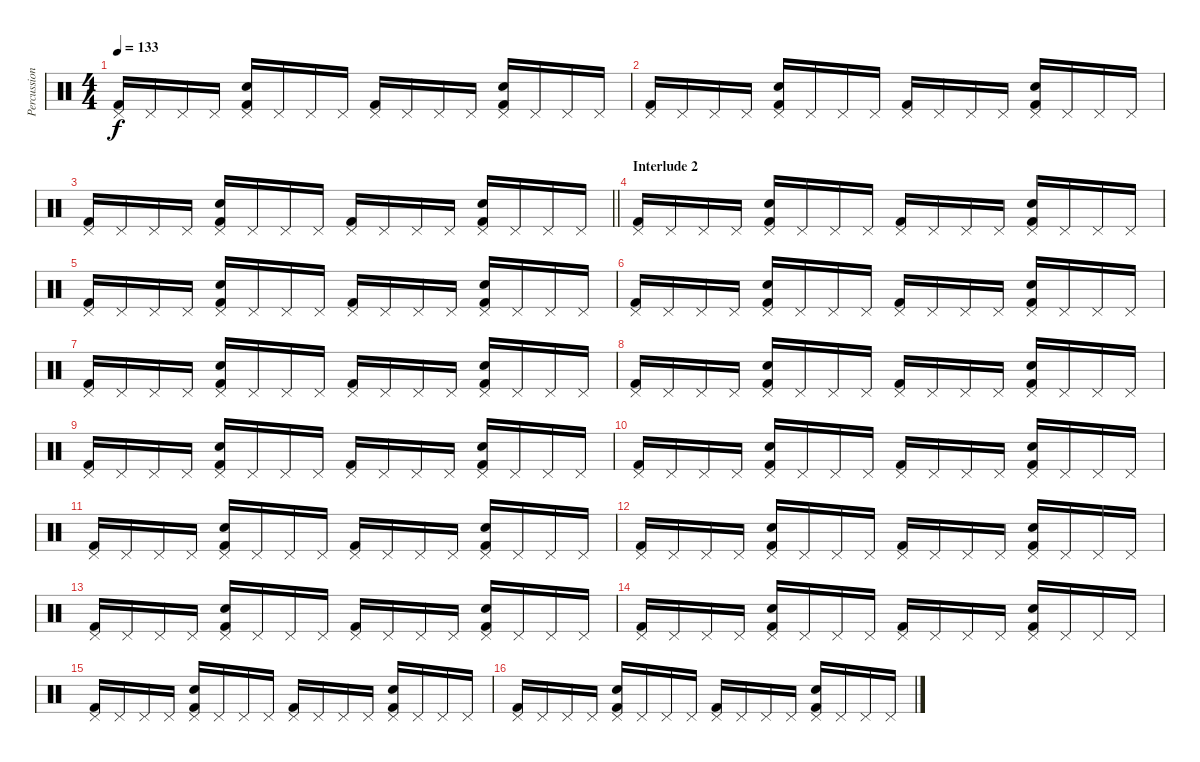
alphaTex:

\track ("Percussions" "Percussion") {instrument percussion}
\staff {score}
\articulation defaults
\ts (4 4)
\tempo 133
\clef neutral
\ks c
("Pedal Hi-Hat (hit)" "Kick (hit) 2").16{dy f} "Pedal Hi-Hat (hit)".16 "Pedal Hi-Hat (hit)".16 "Pedal Hi-Hat (hit)".16 ("Pedal Hi-Hat (hit)" "Electric Snare (hit)" "Kick (hit) 2").16 "Pedal Hi-Hat (hit)".16 "Pedal Hi-Hat (hit)".16 "Pedal Hi-Hat (hit)".16 ("Pedal Hi-Hat (hit)" "Kick (hit) 2").16 "Pedal Hi-Hat (hit)".16 "Pedal Hi-Hat (hit)".16 "Pedal Hi-Hat (hit)".16 ("Pedal Hi-Hat (hit)" "Electric Snare (hit)" "Kick (hit) 2").16 "Pedal Hi-Hat (hit)".16 "Pedal Hi-Hat (hit)".16 "Pedal Hi-Hat (hit)".16 |
("Pedal Hi-Hat (hit)" "Kick (hit) 2").16 "Pedal Hi-Hat (hit)".16 "Pedal Hi-Hat (hit)".16 "Pedal Hi-Hat (hit)".16 ("Pedal Hi-Hat (hit)" "Electric Snare (hit)" "Kick (hit) 2").16 "Pedal Hi-Hat (hit)".16 "Pedal Hi-Hat (hit)".16 "Pedal Hi-Hat (hit)".16 ("Pedal Hi-Hat (hit)" "Kick (hit) 2").16 "Pedal Hi-Hat (hit)".16 "Pedal Hi-Hat (hit)".16 "Pedal Hi-Hat (hit)".16 ("Pedal Hi-Hat (hit)" "Electric Snare (hit)" "Kick (hit) 2").16 "Pedal Hi-Hat (hit)".16 "Pedal Hi-Hat (hit)".16 "Pedal Hi-Hat (hit)".16 |
\barLineRight lightlight
("Pedal Hi-Hat (hit)" "Kick (hit) 2").16 "Pedal Hi-Hat (hit)".16 "Pedal Hi-Hat (hit)".16 "Pedal Hi-Hat (hit)".16 ("Pedal Hi-Hat (hit)" "Electric Snare (hit)" "Kick (hit) 2").16 "Pedal Hi-Hat (hit)".16 "Pedal Hi-Hat (hit)".16 "Pedal Hi-Hat (hit)".16 ("Pedal Hi-Hat (hit)" "Kick (hit) 2").16 "Pedal Hi-Hat (hit)".16 "Pedal Hi-Hat (hit)".16 "Pedal Hi-Hat (hit)".16 ("Pedal Hi-Hat (hit)" "Electric Snare (hit)" "Kick (hit) 2").16 "Pedal Hi-Hat (hit)".16 "Pedal Hi-Hat (hit)".16 "Pedal Hi-Hat (hit)".16 |
\section ("" "Interlude 2")
("Pedal Hi-Hat (hit)" "Kick (hit) 2").16 "Pedal Hi-Hat (hit)".16 "Pedal Hi-Hat (hit)".16 "Pedal Hi-Hat (hit)".16 ("Pedal Hi-Hat (hit)" "Electric Snare (hit)" "Kick (hit) 2").16 "Pedal Hi-Hat (hit)".16 "Pedal Hi-Hat (hit)".16 "Pedal Hi-Hat (hit)".16 ("Pedal Hi-Hat (hit)" "Kick (hit) 2").16 "Pedal Hi-Hat (hit)".16 "Pedal Hi-Hat (hit)".16 "Pedal Hi-Hat (hit)".16 ("Pedal Hi-Hat (hit)" "Electric Snare (hit)" "Kick (hit) 2").16 "Pedal Hi-Hat (hit)".16 "Pedal Hi-Hat (hit)".16 "Pedal Hi-Hat (hit)".16 |
("Pedal Hi-Hat (hit)" "Kick (hit) 2").16 "Pedal Hi-Hat (hit)".16 "Pedal Hi-Hat (hit)".16 "Pedal Hi-Hat (hit)".16 ("Pedal Hi-Hat (hit)" "Electric Snare (hit)" "Kick (hit) 2").16 "Pedal Hi-Hat (hit)".16 "Pedal Hi-Hat (hit)".16 "Pedal Hi-Hat (hit)".16 ("Pedal Hi-Hat (hit)" "Kick (hit) 2").16 "Pedal Hi-Hat (hit)".16 "Pedal Hi-Hat (hit)".16 "Pedal Hi-Hat (hit)".16 ("Pedal Hi-Hat (hit)" "Electric Snare (hit)" "Kick (hit) 2").16 "Pedal Hi-Hat (hit)".16 "Pedal Hi-Hat (hit)".16 "Pedal Hi-Hat (hit)".16 |
("Pedal Hi-Hat (hit)" "Kick (hit) 2").16 "Pedal Hi-Hat (hit)".16 "Pedal Hi-Hat (hit)".16 "Pedal Hi-Hat (hit)".16 ("Pedal Hi-Hat (hit)" "Electric Snare (hit)" "Kick (hit) 2").16 "Pedal Hi-Hat (hit)".16 "Pedal Hi-Hat (hit)".16 "Pedal Hi-Hat (hit)".16 ("Pedal Hi-Hat (hit)" "Kick (hit) 2").16 "Pedal Hi-Hat (hit)".16 "Pedal Hi-Hat (hit)".16 "Pedal Hi-Hat (hit)".16 ("Pedal Hi-Hat (hit)" "Electric Snare (hit)" "Kick (hit) 2").16 "Pedal Hi-Hat (hit)".16 "Pedal Hi-Hat (hit)".16 "Pedal Hi-Hat (hit)".16 |
("Pedal Hi-Hat (hit)" "Kick (hit) 2").16 "Pedal Hi-Hat (hit)".16 "Pedal Hi-Hat (hit)".16 "Pedal Hi-Hat (hit)".16 ("Pedal Hi-Hat (hit)" "Electric Snare (hit)" "Kick (hit) 2").16 "Pedal Hi-Hat (hit)".16 "Pedal Hi-Hat (hit)".16 "Pedal Hi-Hat (hit)".16 ("Pedal Hi-Hat (hit)" "Kick (hit) 2").16 "Pedal Hi-Hat (hit)".16 "Pedal Hi-Hat (hit)".16 "Pedal Hi-Hat (hit)".16 ("Pedal Hi-Hat (hit)" "Electric Snare (hit)" "Kick (hit) 2").16 "Pedal Hi-Hat (hit)".16 "Pedal Hi-Hat (hit)".16 "Pedal Hi-Hat (hit)".16 |
("Pedal Hi-Hat (hit)" "Kick (hit) 2").16 "Pedal Hi-Hat (hit)".16 "Pedal Hi-Hat (hit)".16 "Pedal Hi-Hat (hit)".16 ("Pedal Hi-Hat (hit)" "Electric Snare (hit)" "Kick (hit) 2").16 "Pedal Hi-Hat (hit)".16 "Pedal Hi-Hat (hit)".16 "Pedal Hi-Hat (hit)".16 ("Pedal Hi-Hat (hit)" "Kick (hit) 2").16 "Pedal Hi-Hat (hit)".16 "Pedal Hi-Hat (hit)".16 "Pedal Hi-Hat (hit)".16 ("Pedal Hi-Hat (hit)" "Electric Snare (hit)" "Kick (hit) 2").16 "Pedal Hi-Hat (hit)".16 "Pedal Hi-Hat (hit)".16 "Pedal Hi-Hat (hit)".16 |
("Pedal Hi-Hat (hit)" "Kick (hit) 2").16 "Pedal Hi-Hat (hit)".16 "Pedal Hi-Hat (hit)".16 "Pedal Hi-Hat (hit)".16 ("Pedal Hi-Hat (hit)" "Electric Snare (hit)" "Kick (hit) 2").16 "Pedal Hi-Hat (hit)".16 "Pedal Hi-Hat (hit)".16 "Pedal Hi-Hat (hit)".16 ("Pedal Hi-Hat (hit)" "Kick (hit) 2").16 "Pedal Hi-Hat (hit)".16 "Pedal Hi-Hat (hit)".16 "Pedal Hi-Hat (hit)".16 ("Pedal Hi-Hat (hit)" "Electric Snare (hit)" "Kick (hit) 2").16 "Pedal Hi-Hat (hit)".16 "Pedal Hi-Hat (hit)".16 "Pedal Hi-Hat (hit)".16 |
("Pedal Hi-Hat (hit)" "Kick (hit) 2").16 "Pedal Hi-Hat (hit)".16 "Pedal Hi-Hat (hit)".16 "Pedal Hi-Hat (hit)".16 ("Pedal Hi-Hat (hit)" "Electric Snare (hit)" "Kick (hit) 2").16 "Pedal Hi-Hat (hit)".16 "Pedal Hi-Hat (hit)".16 "Pedal Hi-Hat (hit)".16 ("Pedal Hi-Hat (hit)" "Kick (hit) 2").16 "Pedal Hi-Hat (hit)".16 "Pedal Hi-Hat (hit)".16 "Pedal Hi-Hat (hit)".16 ("Pedal Hi-Hat (hit)" "Electric Snare (hit)" "Kick (hit) 2").16 "Pedal Hi-Hat (hit)".16 "Pedal Hi-Hat (hit)".16 "Pedal Hi-Hat (hit)".16 |
("Pedal Hi-Hat (hit)" "Kick (hit) 2").16 "Pedal Hi-Hat (hit)".16 "Pedal Hi-Hat (hit)".16 "Pedal Hi-Hat (hit)".16 ("Pedal Hi-Hat (hit)" "Electric Snare (hit)" "Kick (hit) 2").16 "Pedal Hi-Hat (hit)".16 "Pedal Hi-Hat (hit)".16 "Pedal Hi-Hat (hit)".16 ("Pedal Hi-Hat (hit)" "Kick (hit) 2").16 "Pedal Hi-Hat (hit)".16 "Pedal Hi-Hat (hit)".16 "Pedal Hi-Hat (hit)".16 ("Pedal Hi-Hat (hit)" "Electric Snare (hit)" "Kick (hit) 2").16 "Pedal Hi-Hat (hit)".16 "Pedal Hi-Hat (hit)".16 "Pedal Hi-Hat (hit)".16 |
("Pedal Hi-Hat (hit)" "Kick (hit) 2").16 "Pedal Hi-Hat (hit)".16 "Pedal Hi-Hat (hit)".16 "Pedal Hi-Hat (hit)".16 ("Pedal Hi-Hat (hit)" "Electric Snare (hit)" "Kick (hit) 2").16 "Pedal Hi-Hat (hit)".16 "Pedal Hi-Hat (hit)".16 "Pedal Hi-Hat (hit)".16 ("Pedal Hi-Hat (hit)" "Kick (hit) 2").16 "Pedal Hi-Hat (hit)".16 "Pedal Hi-Hat (hit)".16 "Pedal Hi-Hat (hit)".16 ("Pedal Hi-Hat (hit)" "Electric Snare (hit)" "Kick (hit) 2").16 "Pedal Hi-Hat (hit)".16 "Pedal Hi-Hat (hit)".16 "Pedal Hi-Hat (hit)".16 |
("Pedal Hi-Hat (hit)" "Kick (hit) 2").16 "Pedal Hi-Hat (hit)".16 "Pedal Hi-Hat (hit)".16 "Pedal Hi-Hat (hit)".16 ("Pedal Hi-Hat (hit)" "Electric Snare (hit)" "Kick (hit) 2").16 "Pedal Hi-Hat (hit)".16 "Pedal Hi-Hat (hit)".16 "Pedal Hi-Hat (hit)".16 ("Pedal Hi-Hat (hit)" "Kick (hit) 2").16 "Pedal Hi-Hat (hit)".16 "Pedal Hi-Hat (hit)".16 "Pedal Hi-Hat (hit)".16 ("Pedal Hi-Hat (hit)" "Electric Snare (hit)" "Kick (hit) 2").16 "Pedal Hi-Hat (hit)".16 "Pedal Hi-Hat (hit)".16 "Pedal Hi-Hat (hit)".16 |
("Pedal Hi-Hat (hit)" "Kick (hit) 2").16 "Pedal Hi-Hat (hit)".16 "Pedal Hi-Hat (hit)".16 "Pedal Hi-Hat (hit)".16 ("Pedal Hi-Hat (hit)" "Electric Snare (hit)" "Kick (hit) 2").16 "Pedal Hi-Hat (hit)".16 "Pedal Hi-Hat (hit)".16 "Pedal Hi-Hat (hit)".16 ("Pedal Hi-Hat (hit)" "Kick (hit) 2").16 "Pedal Hi-Hat (hit)".16 "Pedal Hi-Hat (hit)".16 "Pedal Hi-Hat (hit)".16 ("Pedal Hi-Hat (hit)" "Electric Snare (hit)" "Kick (hit) 2").16 "Pedal Hi-Hat (hit)".16 "Pedal Hi-Hat (hit)".16 "Pedal Hi-Hat (hit)".16 |
("Pedal Hi-Hat (hit)" "Kick (hit) 2").16 "Pedal Hi-Hat (hit)".16 "Pedal Hi-Hat (hit)".16 "Pedal Hi-Hat (hit)".16 ("Pedal Hi-Hat (hit)" "Electric Snare (hit)" "Kick (hit) 2").16 "Pedal Hi-Hat (hit)".16 "Pedal Hi-Hat (hit)".16 "Pedal Hi-Hat (hit)".16 ("Pedal Hi-Hat (hit)" "Kick (hit) 2").16 "Pedal Hi-Hat (hit)".16 "Pedal Hi-Hat (hit)".16 "Pedal Hi-Hat (hit)".16 ("Pedal Hi-Hat (hit)" "Electric Snare (hit)" "Kick (hit) 2").16 "Pedal Hi-Hat (hit)".16 "Pedal Hi-Hat (hit)".16 "Pedal Hi-Hat (hit)".16 |
("Pedal Hi-Hat (hit)" "Kick (hit) 2").16 "Pedal Hi-Hat (hit)".16 "Pedal Hi-Hat (hit)".16 "Pedal Hi-Hat (hit)".16 ("Pedal Hi-Hat (hit)" "Electric Snare (hit)" "Kick (hit) 2").16 "Pedal Hi-Hat (hit)".16 "Pedal Hi-Hat (hit)".16 "Pedal Hi-Hat (hit)".16 ("Pedal Hi-Hat (hit)" "Kick (hit) 2").16 "Pedal Hi-Hat (hit)".16 "Pedal Hi-Hat (hit)".16 "Pedal Hi-Hat (hit)".16 ("Pedal Hi-Hat (hit)" "Electric Snare (hit)" "Kick (hit) 2").16 "Pedal Hi-Hat (hit)".16 "Pedal Hi-Hat (hit)".16 "Pedal Hi-Hat (hit)".16
